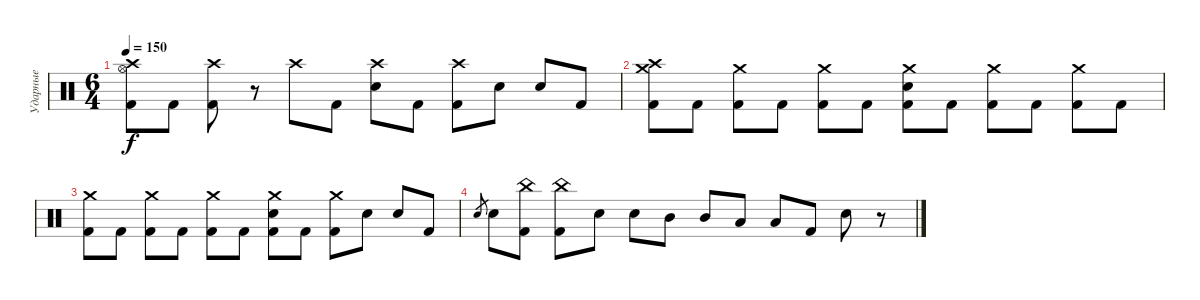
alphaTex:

\track ("Ударные" "Ударные") {instrument percussion}
\staff {score}
\articulation defaults
\ts (6 4)
\tempo 150
\clef neutral
\ks c
("Crash high (hit)" "Hi-Hat (open)" "Kick (hit) 2").8{dy f} "Kick (hit) 2".8 ("Crash high (hit)" "Kick (hit) 2").8 r.8 "Crash high (hit)".8 "Kick (hit) 2".8 ("Crash high (hit)" "Electric Snare (hit)").8 "Kick (hit) 2".8 ("Crash high (hit)" "Kick (hit) 2").8 "Electric Snare (hit)".8 "Electric Snare (hit)".8 "Kick (hit) 2".8 |
("Crash high (hit)" "Crash medium (hit)" "Kick (hit) 2").8 "Kick (hit) 2".8 ("Crash medium (hit)" "Kick (hit) 2").8 "Kick (hit) 2".8 ("Crash medium (hit)" "Kick (hit) 2").8 "Kick (hit) 2".8 ("Crash medium (hit)" "Electric Snare (hit)" "Kick (hit) 2").8 "Kick (hit) 2".8 ("Crash medium (hit)" "Kick (hit) 2").8 "Kick (hit) 2".8 ("Crash medium (hit)" "Kick (hit) 2").8 "Kick (hit) 2".8 |
("Crash medium (hit)" "Kick (hit) 2").8 "Kick (hit) 2".8 ("Crash medium (hit)" "Kick (hit) 2").8 "Kick (hit) 2".8 ("Crash medium (hit)" "Kick (hit) 2").8 "Kick (hit) 2".8 ("Crash medium (hit)" "Electric Snare (hit)" "Kick (hit) 2").8 "Kick (hit) 2".8 ("Crash medium (hit)" "Kick (hit) 2").8 "Electric Snare (hit)".8 "Electric Snare (hit)".8 "Kick (hit) 2".8 |
"Electric Snare (hit)".8{gr} "Electric Snare (hit)".8 ("China (hit)" "Kick (hit) 2").8 ("China (hit)" "Kick (hit) 2").8 "Electric Snare (hit)".8 "Electric Snare (hit)".8 "Mid Tom (hit)".8 "Mid Tom (hit)".8 "Low Tom (hit)".8 "Low Tom (hit)".8 "Kick (hit) 2".8 "Electric Snare (hit)".8 r.8
